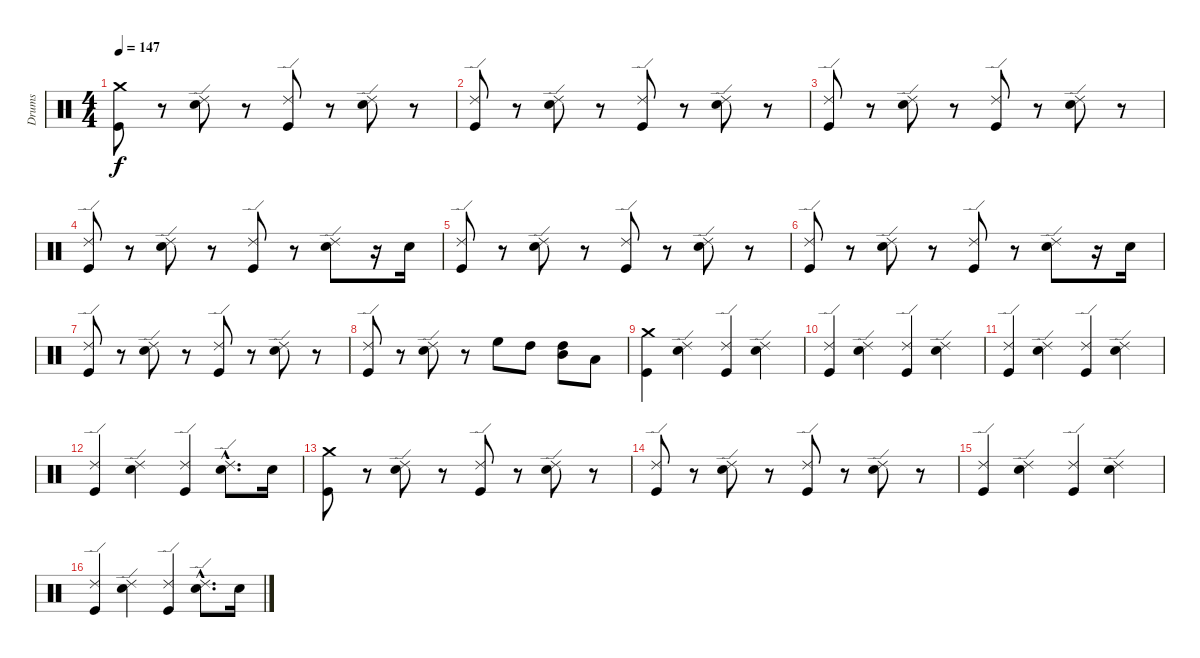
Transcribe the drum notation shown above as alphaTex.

\track ("Drums" "Drums") {instrument percussion}
\staff {score}
\articulation defaults
\ts (4 4)
\tempo 147
\clef neutral
\ks c
("Crash medium (hit)" "Kick (hit)").8{dy f} r.8 ("Ride (edge) 2" "Snare (hit) 2").8 r.8 ("Ride (edge) 2" "Kick (hit)").8 r.8 ("Ride (edge) 2" "Snare (hit) 2").8 r.8 |
("Ride (edge) 2" "Kick (hit)").8 r.8 ("Ride (edge) 2" "Snare (hit) 2").8 r.8 ("Ride (edge) 2" "Kick (hit)").8 r.8 ("Ride (edge) 2" "Snare (hit) 2").8 r.8 |
("Ride (edge) 2" "Kick (hit)").8 r.8 ("Ride (edge) 2" "Snare (hit) 2").8 r.8 ("Ride (edge) 2" "Kick (hit)").8 r.8 ("Ride (edge) 2" "Snare (hit) 2").8 r.8 |
("Ride (edge) 2" "Kick (hit)").8 r.8 ("Ride (edge) 2" "Snare (hit) 2").8 r.8 ("Ride (edge) 2" "Kick (hit)").8 r.8 ("Ride (edge) 2" "Snare (hit) 2").8 r.16 "Snare (hit) 2".16 |
("Ride (edge) 2" "Kick (hit)").8 r.8 ("Ride (edge) 2" "Snare (hit) 2").8 r.8 ("Ride (edge) 2" "Kick (hit)").8 r.8 ("Ride (edge) 2" "Snare (hit) 2").8 r.8 |
("Ride (edge) 2" "Kick (hit)").8 r.8 ("Ride (edge) 2" "Snare (hit) 2").8 r.8 ("Ride (edge) 2" "Kick (hit)").8 r.8 ("Ride (edge) 2" "Snare (hit) 2").8 r.16 "Snare (hit) 2".16 |
("Ride (edge) 2" "Kick (hit)").8 r.8 ("Ride (edge) 2" "Snare (hit) 2").8 r.8 ("Ride (edge) 2" "Kick (hit)").8 r.8 ("Ride (edge) 2" "Snare (hit) 2").8 r.8 |
("Ride (edge) 2" "Kick (hit)").8 r.8 ("Ride (edge) 2" "Snare (hit) 2").8 r.8 "High Floor Tom (hit)".8 "High Tom (hit)".8 ("Mid Tom (hit)" "High Tom (hit)").8 "Low Floor Tom (hit)".8 |
("Crash medium (hit)" "Kick (hit)").4 ("Ride (edge) 2" "Snare (hit) 2").4 ("Ride (edge) 2" "Kick (hit)").4 ("Ride (edge) 2" "Snare (hit) 2").4 |
("Ride (edge) 2" "Kick (hit)").4 ("Ride (edge) 2" "Snare (hit) 2").4 ("Ride (edge) 2" "Kick (hit)").4 ("Ride (edge) 2" "Snare (hit) 2").4 |
("Ride (edge) 2" "Kick (hit)").4 ("Ride (edge) 2" "Snare (hit) 2").4 ("Ride (edge) 2" "Kick (hit)").4 ("Ride (edge) 2" "Snare (hit) 2").4 |
("Ride (edge) 2" "Kick (hit)").4 ("Ride (edge) 2" "Snare (hit) 2").4 ("Ride (edge) 2" "Kick (hit)").4 ("Ride (edge) 2"{hac} "Snare (hit) 2"{hac}).8{d} "Snare (hit) 2".16 |
("Crash medium (hit)" "Kick (hit)").8 r.8 ("Ride (edge) 2" "Snare (hit) 2").8 r.8 ("Ride (edge) 2" "Kick (hit)").8 r.8 ("Ride (edge) 2" "Snare (hit) 2").8 r.8 |
("Ride (edge) 2" "Kick (hit)").8 r.8 ("Ride (edge) 2" "Snare (hit) 2").8 r.8 ("Ride (edge) 2" "Kick (hit)").8 r.8 ("Ride (edge) 2" "Snare (hit) 2").8 r.8 |
("Ride (edge) 2" "Kick (hit)").4 ("Ride (edge) 2" "Snare (hit) 2").4 ("Ride (edge) 2" "Kick (hit)").4 ("Ride (edge) 2" "Snare (hit) 2").4 |
("Ride (edge) 2" "Kick (hit)").4 ("Ride (edge) 2" "Snare (hit) 2").4 ("Ride (edge) 2" "Kick (hit)").4 ("Ride (edge) 2"{hac} "Snare (hit) 2"{hac}).8{d} "Snare (hit) 2".16
